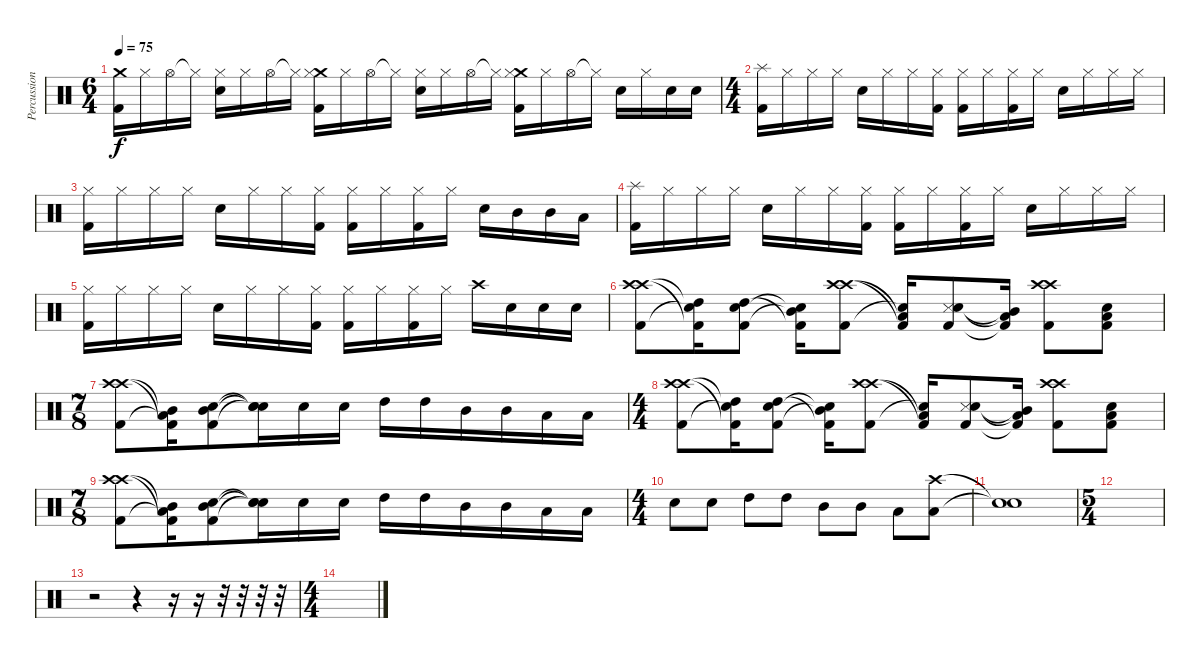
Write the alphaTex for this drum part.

\track ("Percussion" "Percussion") {instrument percussion}
\staff {score}
\articulation defaults
\ts (6 4)
\tempo 75
\clef neutral
\ks c
("Crash medium (hit)" "Kick (hit) 2").16{dy f} "Hi-Hat (closed)".16 "Hi-Hat (open)".16 "Hi-Hat (closed)"{t}.16 ("Snare (hit) 2" "Hi-Hat (closed)").16 "Hi-Hat (closed)".16 "Hi-Hat (open)".16 "Hi-Hat (closed)"{t}.16 ("Crash medium (hit)" "Kick (hit) 2" "Hi-Hat (closed)").16 "Hi-Hat (closed)".16 "Hi-Hat (open)".16 "Hi-Hat (closed)"{t}.16 ("Snare (hit) 2" "Hi-Hat (closed)").16 "Hi-Hat (closed)".16 "Hi-Hat (open)".16 "Hi-Hat (closed)"{t}.16 ("Crash medium (hit)" "Kick (hit) 2" "Hi-Hat (closed)").16 "Hi-Hat (closed)".16 "Hi-Hat (open)".16 "Hi-Hat (closed)"{t}.16 "Snare (hit) 2".16 "Hi-Hat (closed)".16 "Snare (hit) 2".16 "Snare (hit) 2".16 |
\ts (4 4)
("Splash (hit)" "Kick (hit) 2").16 "Hi-Hat (closed)".16 "Hi-Hat (closed)".16 "Hi-Hat (closed)".16 "Snare (hit) 2".16 "Hi-Hat (closed)".16 "Hi-Hat (closed)".16 ("Kick (hit) 2" "Hi-Hat (closed)").16 ("Kick (hit) 2" "Hi-Hat (closed)").16 "Hi-Hat (closed)".16 ("Kick (hit) 2" "Hi-Hat (closed)").16 "Hi-Hat (closed)".16 "Snare (hit) 2".16 "Hi-Hat (closed)".16 "Hi-Hat (closed)".16 "Hi-Hat (closed)".16 |
("Kick (hit) 2" "Hi-Hat (closed)").16 "Hi-Hat (closed)".16 "Hi-Hat (closed)".16 "Hi-Hat (closed)".16 "Snare (hit) 2".16 "Hi-Hat (closed)".16 "Hi-Hat (closed)".16 ("Kick (hit) 2" "Hi-Hat (closed)").16 ("Kick (hit) 2" "Hi-Hat (closed)").16 "Hi-Hat (closed)".16 ("Kick (hit) 2" "Hi-Hat (closed)").16 "Hi-Hat (closed)".16 "Snare (hit) 2".16 "Mid Tom (hit)".16 "Mid Tom (hit)".16 "Low Floor Tom (hit)".16 |
("Splash (hit)" "Kick (hit) 2").16 "Hi-Hat (closed)".16 "Hi-Hat (closed)".16 "Hi-Hat (closed)".16 "Snare (hit) 2".16 "Hi-Hat (closed)".16 "Hi-Hat (closed)".16 ("Kick (hit) 2" "Hi-Hat (closed)").16 ("Kick (hit) 2" "Hi-Hat (closed)").16 "Hi-Hat (closed)".16 ("Kick (hit) 2" "Hi-Hat (closed)").16 "Hi-Hat (closed)".16 "Snare (hit) 2".16 "Hi-Hat (closed)".16 "Hi-Hat (closed)".16 "Hi-Hat (closed)".16 |
("Kick (hit) 2" "Hi-Hat (closed)").16 "Hi-Hat (closed)".16 "Hi-Hat (closed)".16 "Hi-Hat (closed)".16 "Snare (hit) 2".16 "Hi-Hat (closed)".16 "Hi-Hat (closed)".16 ("Kick (hit) 2" "Hi-Hat (closed)").16 ("Kick (hit) 2" "Hi-Hat (closed)").16 "Hi-Hat (closed)".16 ("Kick (hit) 2" "Hi-Hat (closed)").16 "Hi-Hat (closed)".16 "Crash high (hit)".16 "Snare (hit) 2".16 "Snare (hit) 2".16 "Snare (hit) 2".16 |
("Crash high (hit)" "Crash high (hit)" "Kick (hit) 2").8 ("Kick (hit) 2"{t} "High Tom (hit)"{t} "Snare (hit) 2"{t}).16 ("High Tom (hit)" "Kick (hit) 2" "Snare (hit) 2").8 ("Kick (hit) 2"{t} "Mid Tom (hit)"{t} "Snare (hit) 2"{t}).16 ("Crash high (hit)" "Crash high (hit)" "Kick (hit) 2").8 ("Kick (hit) 2"{t} "Low Floor Tom (hit)"{t} "Snare (hit) 2"{t}).16 ("Kick (hit) 2" "Snare (side stick) 3" "Snare (hit) 2").8 ("Kick (hit) 2"{t} "Low Floor Tom (hit)"{t} "Mid Tom (hit)"{t}).16 ("Crash high (hit)" "Crash high (hit)" "Kick (hit) 2").8 ("Kick (hit) 2" "Low Floor Tom (hit)" "Snare (hit) 2").8 |
\ts (7 8)
("Crash high (hit)" "Crash high (hit)" "Kick (hit) 2").8 ("Kick (hit) 2"{t} "Mid Tom (hit)"{t} "Low Floor Tom (hit)"{t}).16 ("Kick (hit) 2" "Mid Tom (hit)" "Snare (hit)").8 ("Snare (hit) 2"{t} "Snare (hit)"{t} "Snare (hit)"{t}).16 "Snare (hit) 2".16 "Snare (hit) 2".16 "High Tom (hit)".16 "High Tom (hit)".16 "Mid Tom (hit)".16 "Mid Tom (hit)".16 "Low Floor Tom (hit)".16 "Low Floor Tom (hit)".16 |
\ts (4 4)
("Crash high (hit)" "Crash high (hit)" "Kick (hit) 2").8 ("Kick (hit) 2"{t} "High Tom (hit)"{t} "Snare (hit) 2"{t}).16 ("High Tom (hit)" "Kick (hit) 2" "Snare (hit) 2").8 ("Kick (hit) 2"{t} "Mid Tom (hit)"{t} "Snare (hit) 2"{t}).16 ("Crash high (hit)" "Crash high (hit)" "Kick (hit) 2").8 ("Kick (hit) 2"{t} "Low Floor Tom (hit)"{t} "Snare (hit) 2"{t}).16 ("Kick (hit) 2" "Snare (side stick) 3" "Snare (hit) 2").8 ("Kick (hit) 2"{t} "Low Floor Tom (hit)"{t} "Mid Tom (hit)"{t}).16 ("Crash high (hit)" "Crash high (hit)" "Kick (hit) 2").8 ("Kick (hit) 2" "Low Floor Tom (hit)" "Snare (hit) 2").8 |
\ts (7 8)
("Crash high (hit)" "Crash high (hit)" "Kick (hit) 2").8 ("Kick (hit) 2"{t} "Mid Tom (hit)"{t} "Low Floor Tom (hit)"{t}).16 ("Kick (hit) 2" "Mid Tom (hit)" "Snare (hit)").8 ("Snare (hit) 2"{t} "Snare (hit)"{t} "Snare (hit)"{t}).16 "Snare (hit) 2".16 "Snare (hit) 2".16 "High Tom (hit)".16 "High Tom (hit)".16 "Mid Tom (hit)".16 "Mid Tom (hit)".16 "Low Floor Tom (hit)".16 "Low Floor Tom (hit)".16 |
\ts (4 4)
"Snare (hit) 2".8 "Snare (hit) 2".8 "High Tom (hit)".8 "High Tom (hit)".8 "Mid Tom (hit)".8 "Mid Tom (hit)".8 "Low Floor Tom (hit)".8 ("Crash high (hit)" "Low Floor Tom (hit)").8 |
("Snare (hit)"{t} "Snare (hit)"{t}).1 |
\ts (5 4)
|
r.2 r.4 r.16 r.16 r.32 r.32 r.32 r.32 |
\ts (4 4)
